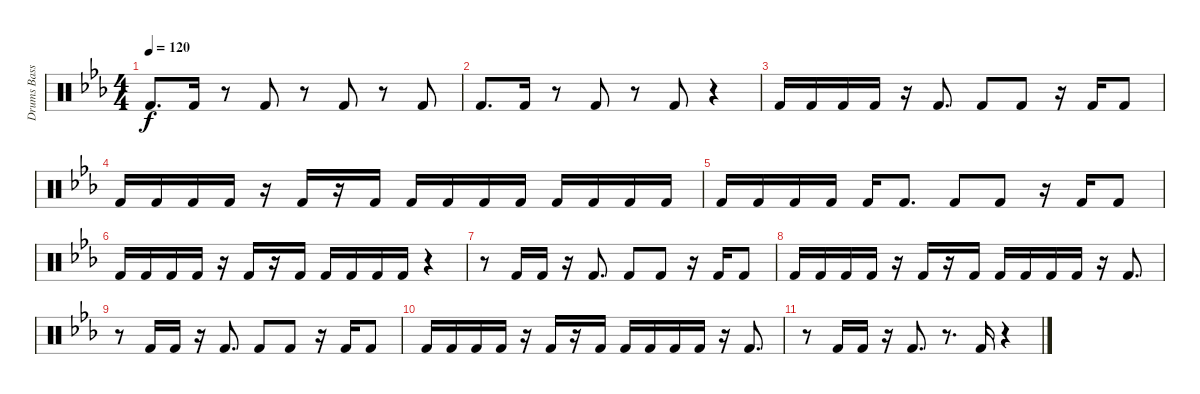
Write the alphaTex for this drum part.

\track ("Drums Bass" "Drums Bass") {instrument percussion}
\staff {score}
\articulation defaults
\ts (4 4)
\tempo 120
\clef neutral
\ks eb "Kick (hit) 2".8{d dy f} "Kick (hit) 2".16
r.8 "Kick (hit) 2".8 r.8 "Kick (hit) 2".8 r.8 "Kick (hit) 2".8 |
"Kick (hit) 2".8{d} "Kick (hit) 2".16 r.8 "Kick (hit) 2".8 r.8 "Kick (hit) 2".8 r.4 |
"Kick (hit) 2".16 "Kick (hit) 2".16 "Kick (hit) 2".16 "Kick (hit) 2".16 r.16 "Kick (hit) 2".8{d} "Kick (hit) 2".8 "Kick (hit) 2".8 r.16 "Kick (hit) 2".16 "Kick (hit) 2".8 |
"Kick (hit) 2".16 "Kick (hit) 2".16 "Kick (hit) 2".16 "Kick (hit) 2".16 r.16 "Kick (hit) 2".16 r.16 "Kick (hit) 2".16 "Kick (hit) 2".16 "Kick (hit) 2".16 "Kick (hit) 2".16 "Kick (hit) 2".16 "Kick (hit) 2".16 "Kick (hit) 2".16 "Kick (hit) 2".16 "Kick (hit) 2".16 |
"Kick (hit) 2".16 "Kick (hit) 2".16 "Kick (hit) 2".16 "Kick (hit) 2".16 "Kick (hit) 2".16 "Kick (hit) 2".8{d} "Kick (hit) 2".8 "Kick (hit) 2".8 r.16 "Kick (hit) 2".16 "Kick (hit) 2".8 |
"Kick (hit) 2".16 "Kick (hit) 2".16 "Kick (hit) 2".16 "Kick (hit) 2".16 r.16 "Kick (hit) 2".16 r.16 "Kick (hit) 2".16 "Kick (hit) 2".16 "Kick (hit) 2".16 "Kick (hit) 2".16 "Kick (hit) 2".16 r.4 |
r.8 "Kick (hit) 2".16 "Kick (hit) 2".16 r.16 "Kick (hit) 2".8{d} "Kick (hit) 2".8 "Kick (hit) 2".8 r.16 "Kick (hit) 2".16 "Kick (hit) 2".8 |
"Kick (hit) 2".16 "Kick (hit) 2".16 "Kick (hit) 2".16 "Kick (hit) 2".16 r.16 "Kick (hit) 2".16 r.16 "Kick (hit) 2".16 "Kick (hit) 2".16 "Kick (hit) 2".16 "Kick (hit) 2".16 "Kick (hit) 2".16 r.16 "Kick (hit) 2".8{d} |
r.8 "Kick (hit) 2".16 "Kick (hit) 2".16 r.16 "Kick (hit) 2".8{d} "Kick (hit) 2".8 "Kick (hit) 2".8 r.16 "Kick (hit) 2".16 "Kick (hit) 2".8 |
"Kick (hit) 2".16 "Kick (hit) 2".16 "Kick (hit) 2".16 "Kick (hit) 2".16 r.16 "Kick (hit) 2".16 r.16 "Kick (hit) 2".16 "Kick (hit) 2".16 "Kick (hit) 2".16 "Kick (hit) 2".16 "Kick (hit) 2".16 r.16 "Kick (hit) 2".8{d} |
r.8 "Kick (hit) 2".16 "Kick (hit) 2".16 r.16 "Kick (hit) 2".8{d} r.8{d} "Kick (hit) 2".16 r.4
